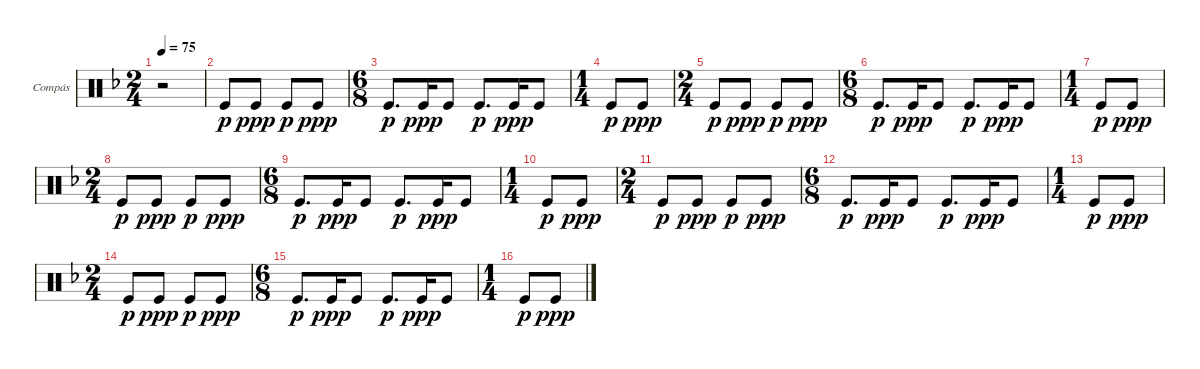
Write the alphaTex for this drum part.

\defaultSystemsLayout 4
\bracketExtendMode groupsimilarinstruments
\firstSystemTrackNameOrientation horizontal
\otherSystemsTrackNameOrientation horizontal
\track ("Compás" "Compás") {instrument percussion}
\staff {score}
\articulation defaults
\ts (2 4)
\tempo 75
\clef neutral
\ks f
r.2{dy p} |
"Kick (hit)".8 "Kick (hit)".8{dy ppp} "Kick (hit)".8{dy p} "Kick (hit)".8{dy ppp} |
\ts (6 8)
"Kick (hit)".8{d dy p} "Kick (hit)".16{dy ppp} "Kick (hit)".8 "Kick (hit)".8{d dy p} "Kick (hit)".16{dy ppp} "Kick (hit)".8 |
\ts (1 4)
"Kick (hit)".8{dy p} "Kick (hit)".8{dy ppp} |
\ts (2 4)
"Kick (hit)".8{dy p} "Kick (hit)".8{dy ppp} "Kick (hit)".8{dy p} "Kick (hit)".8{dy ppp} |
\ts (6 8)
"Kick (hit)".8{d dy p} "Kick (hit)".16{dy ppp} "Kick (hit)".8 "Kick (hit)".8{d dy p} "Kick (hit)".16{dy ppp} "Kick (hit)".8 |
\ts (1 4)
"Kick (hit)".8{dy p} "Kick (hit)".8{dy ppp} |
\ts (2 4)
"Kick (hit)".8{dy p} "Kick (hit)".8{dy ppp} "Kick (hit)".8{dy p} "Kick (hit)".8{dy ppp} |
\ts (6 8)
"Kick (hit)".8{d dy p} "Kick (hit)".16{dy ppp} "Kick (hit)".8 "Kick (hit)".8{d dy p} "Kick (hit)".16{dy ppp} "Kick (hit)".8 |
\ts (1 4)
"Kick (hit)".8{dy p} "Kick (hit)".8{dy ppp} |
\ts (2 4)
"Kick (hit)".8{dy p} "Kick (hit)".8{dy ppp} "Kick (hit)".8{dy p} "Kick (hit)".8{dy ppp} |
\ts (6 8)
"Kick (hit)".8{d dy p} "Kick (hit)".16{dy ppp} "Kick (hit)".8 "Kick (hit)".8{d dy p} "Kick (hit)".16{dy ppp} "Kick (hit)".8 |
\ts (1 4)
"Kick (hit)".8{dy p} "Kick (hit)".8{dy ppp} |
\ts (2 4)
"Kick (hit)".8{dy p} "Kick (hit)".8{dy ppp} "Kick (hit)".8{dy p} "Kick (hit)".8{dy ppp} |
\ts (6 8)
"Kick (hit)".8{d dy p} "Kick (hit)".16{dy ppp} "Kick (hit)".8 "Kick (hit)".8{d dy p} "Kick (hit)".16{dy ppp} "Kick (hit)".8 |
\ts (1 4)
"Kick (hit)".8{dy p} "Kick (hit)".8{dy ppp}
